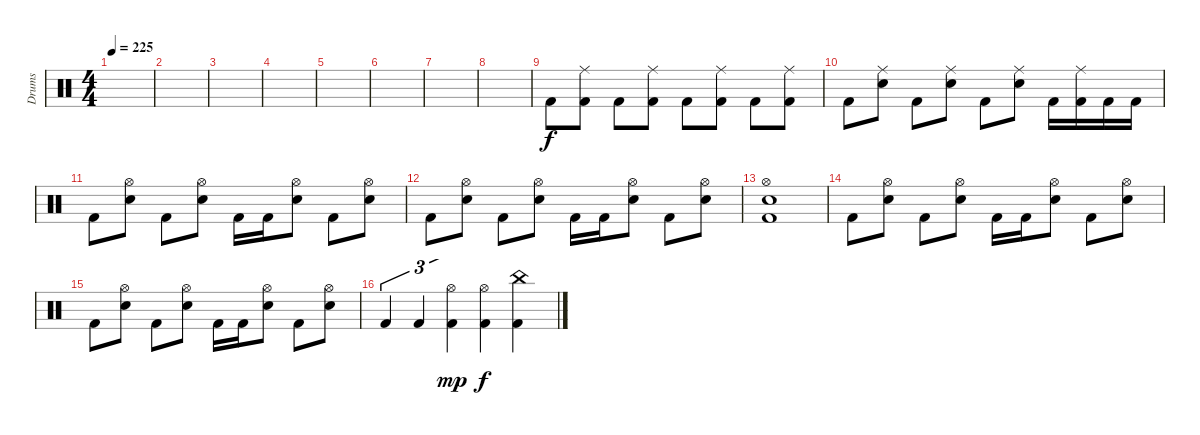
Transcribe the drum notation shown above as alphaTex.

\track ("Drums" "Drums") {instrument percussion}
\staff {score}
\articulation defaults
\ts (4 4)
\tempo 225
\clef neutral
\ks c
|
|
|
|
|
|
|
|
"Kick (hit) 2".8 ("Ride (middle)" "Kick (hit) 2").8 "Kick (hit) 2".8 ("Ride (middle)" "Kick (hit) 2").8 "Kick (hit) 2".8 ("Ride (middle)" "Kick (hit) 2").8 "Kick (hit) 2".8 ("Ride (middle)" "Kick (hit) 2").8 |
"Kick (hit) 2".8 ("Ride (middle)" "Electric Snare (hit)").8 "Kick (hit) 2".8 ("Ride (middle)" "Electric Snare (hit)").8 "Kick (hit) 2".8 ("Ride (middle)" "Electric Snare (hit)").8 "Kick (hit) 2".16 ("Ride (middle)" "Kick (hit) 2").16 "Kick (hit) 2".16 "Kick (hit) 2".16 |
"Kick (hit) 2".8 ("Hi-Hat (open)" "Electric Snare (hit)").8 "Kick (hit) 2".8 ("Hi-Hat (open)" "Electric Snare (hit)").8 "Kick (hit) 2".16 "Kick (hit) 2".16 ("Hi-Hat (open)" "Electric Snare (hit)").8 "Kick (hit) 2".8 ("Hi-Hat (open)" "Electric Snare (hit)").8 |
"Kick (hit) 2".8 ("Hi-Hat (open)" "Electric Snare (hit)").8 "Kick (hit) 2".8 ("Hi-Hat (open)" "Electric Snare (hit)").8 "Kick (hit) 2".16 "Kick (hit) 2".16 ("Hi-Hat (open)" "Electric Snare (hit)").8 "Kick (hit) 2".8 ("Hi-Hat (open)" "Electric Snare (hit)").8 |
("Hi-Hat (open)" "Electric Snare (hit)" "Kick (hit) 2").1 |
"Kick (hit) 2".8 ("Hi-Hat (open)" "Electric Snare (hit)").8 "Kick (hit) 2".8 ("Hi-Hat (open)" "Electric Snare (hit)").8 "Kick (hit) 2".16 "Kick (hit) 2".16 ("Hi-Hat (open)" "Electric Snare (hit)").8 "Kick (hit) 2".8 ("Hi-Hat (open)" "Electric Snare (hit)").8 |
"Kick (hit) 2".8 ("Hi-Hat (open)" "Electric Snare (hit)").8 "Kick (hit) 2".8 ("Hi-Hat (open)" "Electric Snare (hit)").8 "Kick (hit) 2".16 "Kick (hit) 2".16 ("Hi-Hat (open)" "Electric Snare (hit)").8 "Kick (hit) 2".8 ("Hi-Hat (open)" "Electric Snare (hit)").8 |
"Kick (hit) 2".4{tu (3 2)} "Kick (hit) 2".4{tu (3 2)} ("Hi-Hat (open)" "Kick (hit) 2").4{tu (3 2) dy mp} ("Hi-Hat (open)" "Kick (hit) 2").4{dy f} ("China (hit)" "Kick (hit) 2").4
